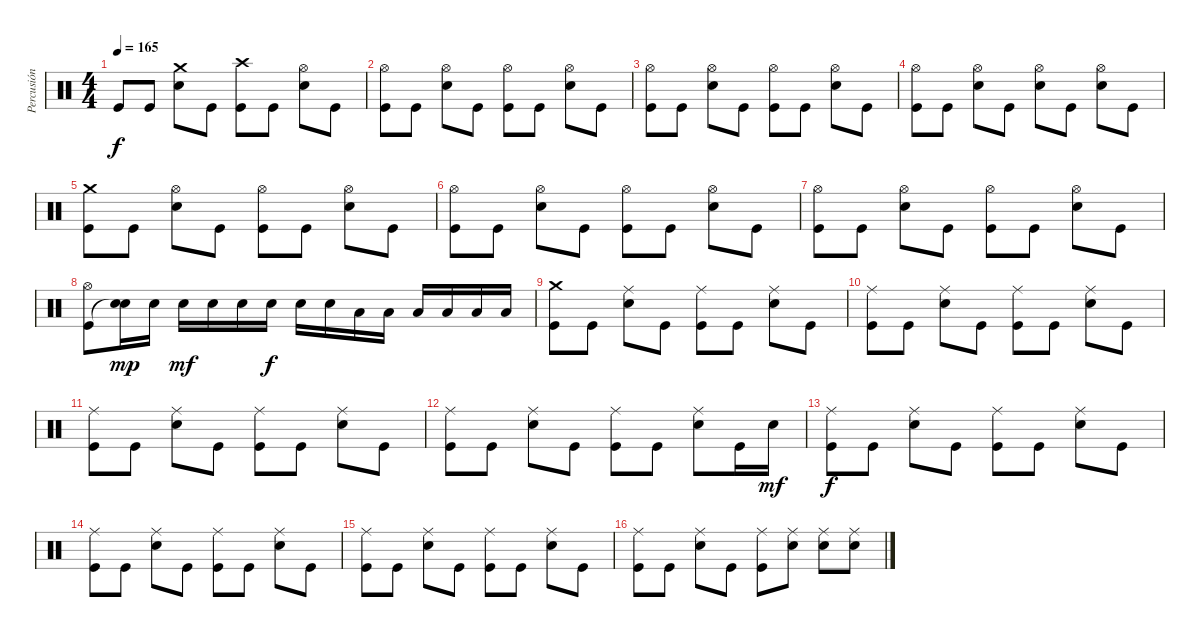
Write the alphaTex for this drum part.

\track ("Percusión" "Percusión") {instrument percussion}
\staff {score}
\articulation defaults
\ts (4 4)
\tempo 165
\clef neutral
\ks c "Kick (hit)".8{dy f} "Kick (hit)".8
("Crash medium (hit)" "Electric Snare (hit)").8 "Kick (hit)".8 ("Crash high (hit)" "Kick (hit)").8 "Kick (hit)".8 ("Hi-Hat (open)" "Electric Snare (hit)").8 "Kick (hit)".8 |
("Hi-Hat (open)" "Kick (hit)").8 "Kick (hit)".8 ("Hi-Hat (open)" "Electric Snare (hit)").8 "Kick (hit)".8 ("Hi-Hat (open)" "Kick (hit)").8 "Kick (hit)".8 ("Hi-Hat (open)" "Electric Snare (hit)").8 "Kick (hit)".8 |
("Hi-Hat (open)" "Kick (hit)").8 "Kick (hit)".8 ("Hi-Hat (open)" "Electric Snare (hit)").8 "Kick (hit)".8 ("Hi-Hat (open)" "Kick (hit)").8 "Kick (hit)".8 ("Hi-Hat (open)" "Electric Snare (hit)").8 "Kick (hit)".8 |
("Hi-Hat (open)" "Kick (hit)").8 "Kick (hit)".8 ("Hi-Hat (open)" "Electric Snare (hit)").8 "Kick (hit)".8 ("Hi-Hat (open)" "Electric Snare (hit)").8 "Kick (hit)".8 ("Hi-Hat (open)" "Electric Snare (hit)").8 "Kick (hit)".8 |
("Crash medium (hit)" "Kick (hit)").8 "Kick (hit)".8 ("Hi-Hat (open)" "Electric Snare (hit)").8 "Kick (hit)".8 ("Hi-Hat (open)" "Kick (hit)").8 "Kick (hit)".8 ("Hi-Hat (open)" "Electric Snare (hit)").8 "Kick (hit)".8 |
("Hi-Hat (open)" "Kick (hit)").8 "Kick (hit)".8 ("Hi-Hat (open)" "Electric Snare (hit)").8 "Kick (hit)".8 ("Hi-Hat (open)" "Kick (hit)").8 "Kick (hit)".8 ("Hi-Hat (open)" "Electric Snare (hit)").8 "Kick (hit)".8 |
("Hi-Hat (open)" "Kick (hit)").8 "Kick (hit)".8 ("Hi-Hat (open)" "Electric Snare (hit)").8 "Kick (hit)".8 ("Hi-Hat (open)" "Kick (hit)").8 "Kick (hit)".8 ("Hi-Hat (open)" "Electric Snare (hit)").8 "Kick (hit)".8 |
("Hi-Hat (open)" "Kick (hit)").8 ("Electric Snare (hit)" "Snare (hit)"{t}).16{dy mp} "Electric Snare (hit)".16 "Electric Snare (hit)".16{dy mf} "Electric Snare (hit)".16 "Electric Snare (hit)".16 "Electric Snare (hit)".16{dy f} "Electric Snare (hit)".16 "Electric Snare (hit)".16 "Low Tom (hit)".16 "Low Tom (hit)".16 "Low Tom (hit)".16 "Low Floor Tom (hit)".16 "Low Floor Tom (hit)".16 "Low Floor Tom (hit)".16 |
("Crash medium (hit)" "Kick (hit)").8 "Kick (hit)".8 ("Ride (middle)" "Electric Snare (hit)").8 "Kick (hit)".8 ("Ride (middle)" "Kick (hit)").8 "Kick (hit)".8 ("Ride (middle)" "Electric Snare (hit)").8 "Kick (hit)".8 |
("Ride (middle)" "Kick (hit)").8 "Kick (hit)".8 ("Ride (middle)" "Electric Snare (hit)").8 "Kick (hit)".8 ("Ride (middle)" "Kick (hit)").8 "Kick (hit)".8 ("Ride (middle)" "Electric Snare (hit)").8 "Kick (hit)".8 |
("Ride (middle)" "Kick (hit)").8 "Kick (hit)".8 ("Ride (middle)" "Electric Snare (hit)").8 "Kick (hit)".8 ("Ride (middle)" "Kick (hit)").8 "Kick (hit)".8 ("Ride (middle)" "Electric Snare (hit)").8 "Kick (hit)".8 |
("Ride (middle)" "Kick (hit)").8 "Kick (hit)".8 ("Ride (middle)" "Electric Snare (hit)").8 "Kick (hit)".8 ("Ride (middle)" "Kick (hit)").8 "Kick (hit)".8 ("Ride (middle)" "Electric Snare (hit)").8 "Kick (hit)".16 "Electric Snare (hit)".16{dy mf} |
("Ride (middle)" "Kick (hit)").8{dy f} "Kick (hit)".8 ("Ride (middle)" "Electric Snare (hit)").8 "Kick (hit)".8 ("Ride (middle)" "Kick (hit)").8 "Kick (hit)".8 ("Ride (middle)" "Electric Snare (hit)").8 "Kick (hit)".8 |
("Ride (middle)" "Kick (hit)").8 "Kick (hit)".8 ("Ride (middle)" "Electric Snare (hit)").8 "Kick (hit)".8 ("Ride (middle)" "Kick (hit)").8 "Kick (hit)".8 ("Ride (middle)" "Electric Snare (hit)").8 "Kick (hit)".8 |
("Ride (middle)" "Kick (hit)").8 "Kick (hit)".8 ("Ride (middle)" "Electric Snare (hit)").8 "Kick (hit)".8 ("Ride (middle)" "Kick (hit)").8 "Kick (hit)".8 ("Ride (middle)" "Electric Snare (hit)").8 "Kick (hit)".8 |
("Ride (middle)" "Kick (hit)").8 "Kick (hit)".8 ("Ride (middle)" "Electric Snare (hit)").8 "Kick (hit)".8 ("Ride (middle)" "Kick (hit)").8 ("Ride (middle)" "Electric Snare (hit)").8 ("Ride (middle)" "Electric Snare (hit)").8 ("Ride (middle)" "Electric Snare (hit)").8
